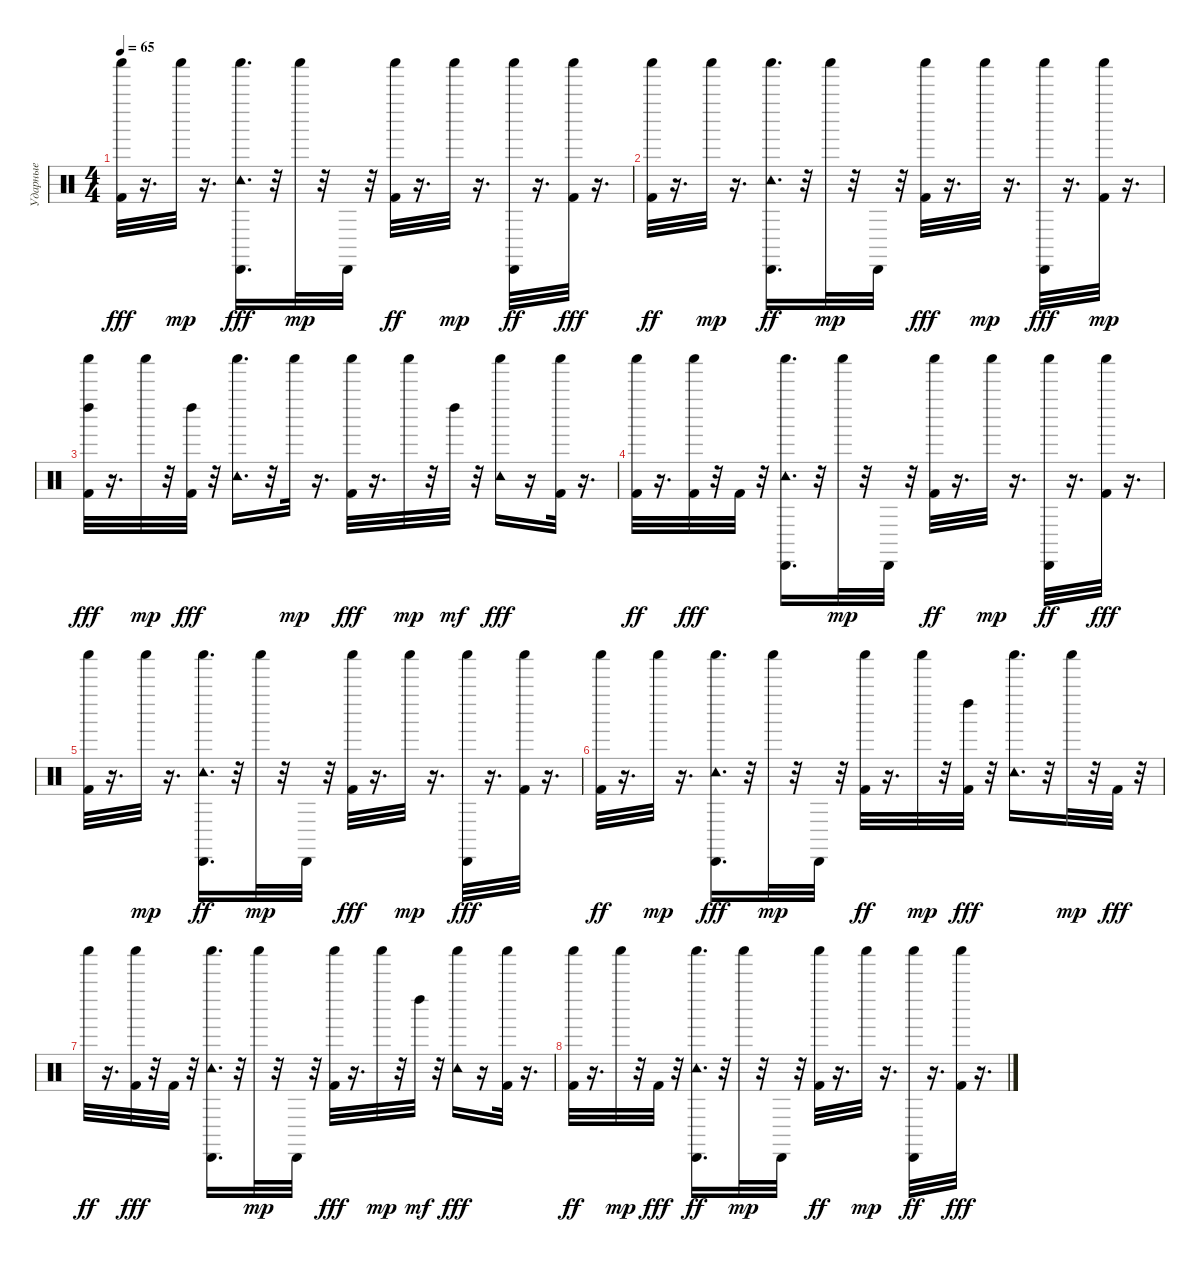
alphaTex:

\track ("Ударные" "Ударные") {instrument percussion}
\staff {score}
\articulation defaults
\ts (4 4)
\tempo 65
\clef neutral
\ks c
("Shaker (hit)" "Kick (hit) 2").32{dy fff} r.16{d} "Shaker (hit)".32{dy mp} r.16{d} ("Shaker (hit)" "Cabasa (hit)" "Tambourine (hit)").16{d dy fff} r.32 "Shaker (hit)".32{dy mp} r.32 "Cabasa (hit)".32 r.32 ("Kick (hit) 2" "Shaker (hit)").32{dy ff} r.16{d} "Shaker (hit)".32{dy mp} r.16{d} ("Shaker (hit)" "Cabasa (hit)").32{dy ff} r.16{d} ("Shaker (hit)" "Kick (hit) 2").32{dy fff} r.16{d} |
("Kick (hit) 2" "Shaker (hit)").32{dy ff} r.16{d} "Shaker (hit)".32{dy mp} r.16{d} ("Tambourine (hit)" "Shaker (hit)" "Cabasa (hit)").16{d dy ff} r.32 "Shaker (hit)".32{dy mp} r.32 "Cabasa (hit)".32 r.32 ("Shaker (hit)" "Kick (hit) 2").32{dy fff} r.16{d} "Shaker (hit)".32{dy mp} r.16{d} ("Cabasa (hit)" "Shaker (hit)").32{dy fff} r.16{d} ("Kick (hit) 2" "Shaker (hit)").32{dy mp} r.16{d} |
("Kick (hit) 2" "Left Maraca (hit)" "Shaker (hit)").32{dy fff} r.16{d} "Shaker (hit)".32{dy mp} r.32 ("Left Maraca (hit)" "Kick (hit) 2").32{dy fff} r.32 ("Tambourine (hit)" "Shaker (hit)").16{d} r.32 "Shaker (hit)".32{dy mp} r.16{d} ("Shaker (hit)" "Kick (hit) 2").32{dy fff} r.16{d} "Shaker (hit)".32{dy mp} r.32 "Left Maraca (hit)".32{dy mf} r.32 ("Tambourine (hit)" "Shaker (hit)").16{dy fff} r.16 ("Shaker (hit)" "Kick (hit) 2").32 r.16{d} |
("Kick (hit) 2" "Shaker (hit)").32{dy ff} r.16{d} ("Shaker (hit)" "Kick (hit) 2").32{dy fff} r.32 "Kick (hit) 2".32 r.32 ("Tambourine (hit)" "Cabasa (hit)" "Shaker (hit)").16{d} r.32 "Shaker (hit)".32{dy mp} r.32 "Cabasa (hit)".32 r.32 ("Kick (hit) 2" "Shaker (hit)").32{dy ff} r.16{d} "Shaker (hit)".32{dy mp} r.16{d} ("Shaker (hit)" "Cabasa (hit)").32{dy ff} r.16{d} ("Shaker (hit)" "Kick (hit) 2").32{dy fff} r.16{d} |
("Shaker (hit)" "Kick (hit) 2").32 r.16{d} "Shaker (hit)".32{dy mp} r.16{d} ("Shaker (hit)" "Tambourine (hit)" "Cabasa (hit)").16{d dy ff} r.32 "Shaker (hit)".32{dy mp} r.32 "Cabasa (hit)".32 r.32 ("Kick (hit) 2" "Shaker (hit)").32{dy fff} r.16{d} "Shaker (hit)".32{dy mp} r.16{d} ("Cabasa (hit)" "Shaker (hit)").32{dy fff} r.16{d} ("Shaker (hit)" "Kick (hit) 2").32 r.16{d} |
("Kick (hit) 2" "Shaker (hit)").32{dy ff} r.16{d} "Shaker (hit)".32{dy mp} r.16{d} ("Shaker (hit)" "Cabasa (hit)" "Tambourine (hit)").16{d dy fff} r.32 "Shaker (hit)".32{dy mp} r.32 "Cabasa (hit)".32 r.32 ("Kick (hit) 2" "Shaker (hit)").32{dy ff} r.16{d} "Shaker (hit)".32{dy mp} r.32 ("Left Maraca (hit)" "Kick (hit) 2").32{dy fff} r.32 ("Shaker (hit)" "Tambourine (hit)").16{d} r.32 "Shaker (hit)".32{dy mp} r.32 "Kick (hit) 2".32{dy fff} r.32 |
"Shaker (hit)".32{dy ff} r.16{d} ("Shaker (hit)" "Kick (hit) 2").32{dy fff} r.32 "Kick (hit) 2".32 r.32 ("Shaker (hit)" "Cabasa (hit)" "Tambourine (hit)").16{d} r.32 "Shaker (hit)".32{dy mp} r.32 "Cabasa (hit)".32 r.32 ("Kick (hit) 2" "Shaker (hit)").32{dy fff} r.16{d} "Shaker (hit)".32{dy mp} r.32 "Left Maraca (hit)".32{dy mf} r.32 ("Tambourine (hit)" "Shaker (hit)").16{dy fff} r.16 ("Shaker (hit)" "Kick (hit) 2").32 r.16{d} |
("Kick (hit) 2" "Shaker (hit)").32{dy ff} r.16{d} "Shaker (hit)".32{dy mp} r.32 "Kick (hit) 2".32{dy fff} r.32 ("Shaker (hit)" "Tambourine (hit)" "Cabasa (hit)").16{d dy ff} r.32 "Shaker (hit)".32{dy mp} r.32 "Cabasa (hit)".32 r.32 ("Kick (hit) 2" "Shaker (hit)").32{dy ff} r.16{d} "Shaker (hit)".32{dy mp} r.16{d} ("Shaker (hit)" "Cabasa (hit)").32{dy ff} r.16{d} ("Shaker (hit)" "Kick (hit) 2").32{dy fff} r.16{d}
